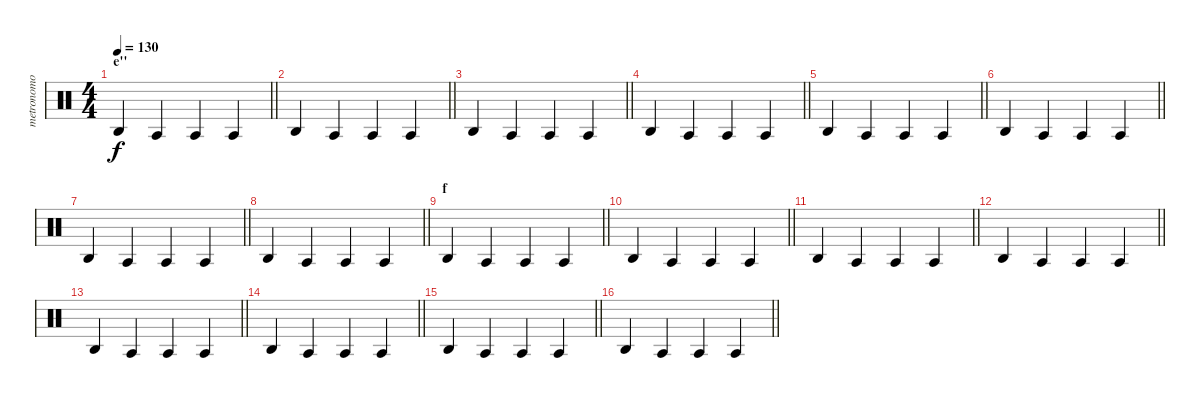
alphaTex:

\track ("metronomo" "metronomo") {mute instrument percussion}
\staff {score}
\articulation defaults
\ts (4 4)
\section ("" "e''")
\tempo 130
\clef neutral
\barLineRight lightlight
\ks c "Agogo high (hit)".4{dy f} "Agogo tow (hit)".4 "Agogo tow (hit)".4 "Agogo tow (hit)".4
|
\barLineRight lightlight "Agogo high (hit)".4 "Agogo tow (hit)".4 "Agogo tow (hit)".4 "Agogo tow (hit)".4
|
\barLineRight lightlight "Agogo high (hit)".4 "Agogo tow (hit)".4 "Agogo tow (hit)".4 "Agogo tow (hit)".4
|
\barLineRight lightlight "Agogo high (hit)".4 "Agogo tow (hit)".4 "Agogo tow (hit)".4 "Agogo tow (hit)".4
|
\barLineRight lightlight "Agogo high (hit)".4 "Agogo tow (hit)".4 "Agogo tow (hit)".4 "Agogo tow (hit)".4
|
\barLineRight lightlight "Agogo high (hit)".4 "Agogo tow (hit)".4 "Agogo tow (hit)".4 "Agogo tow (hit)".4
|
\barLineRight lightlight "Agogo high (hit)".4 "Agogo tow (hit)".4 "Agogo tow (hit)".4 "Agogo tow (hit)".4
|
\barLineRight lightlight "Agogo high (hit)".4 "Agogo tow (hit)".4 "Agogo tow (hit)".4 "Agogo tow (hit)".4
|
\section ("" "f")
\barLineRight lightlight "Agogo high (hit)".4 "Agogo tow (hit)".4 "Agogo tow (hit)".4 "Agogo tow (hit)".4
|
\barLineRight lightlight "Agogo high (hit)".4 "Agogo tow (hit)".4 "Agogo tow (hit)".4 "Agogo tow (hit)".4
|
\barLineRight lightlight "Agogo high (hit)".4 "Agogo tow (hit)".4 "Agogo tow (hit)".4 "Agogo tow (hit)".4
|
\barLineRight lightlight "Agogo high (hit)".4 "Agogo tow (hit)".4 "Agogo tow (hit)".4 "Agogo tow (hit)".4
|
\barLineRight lightlight "Agogo high (hit)".4 "Agogo tow (hit)".4 "Agogo tow (hit)".4 "Agogo tow (hit)".4
|
\barLineRight lightlight "Agogo high (hit)".4 "Agogo tow (hit)".4 "Agogo tow (hit)".4 "Agogo tow (hit)".4
|
\barLineRight lightlight "Agogo high (hit)".4 "Agogo tow (hit)".4 "Agogo tow (hit)".4 "Agogo tow (hit)".4
|
\barLineRight lightlight "Agogo high (hit)".4 "Agogo tow (hit)".4 "Agogo tow (hit)".4 "Agogo tow (hit)".4
